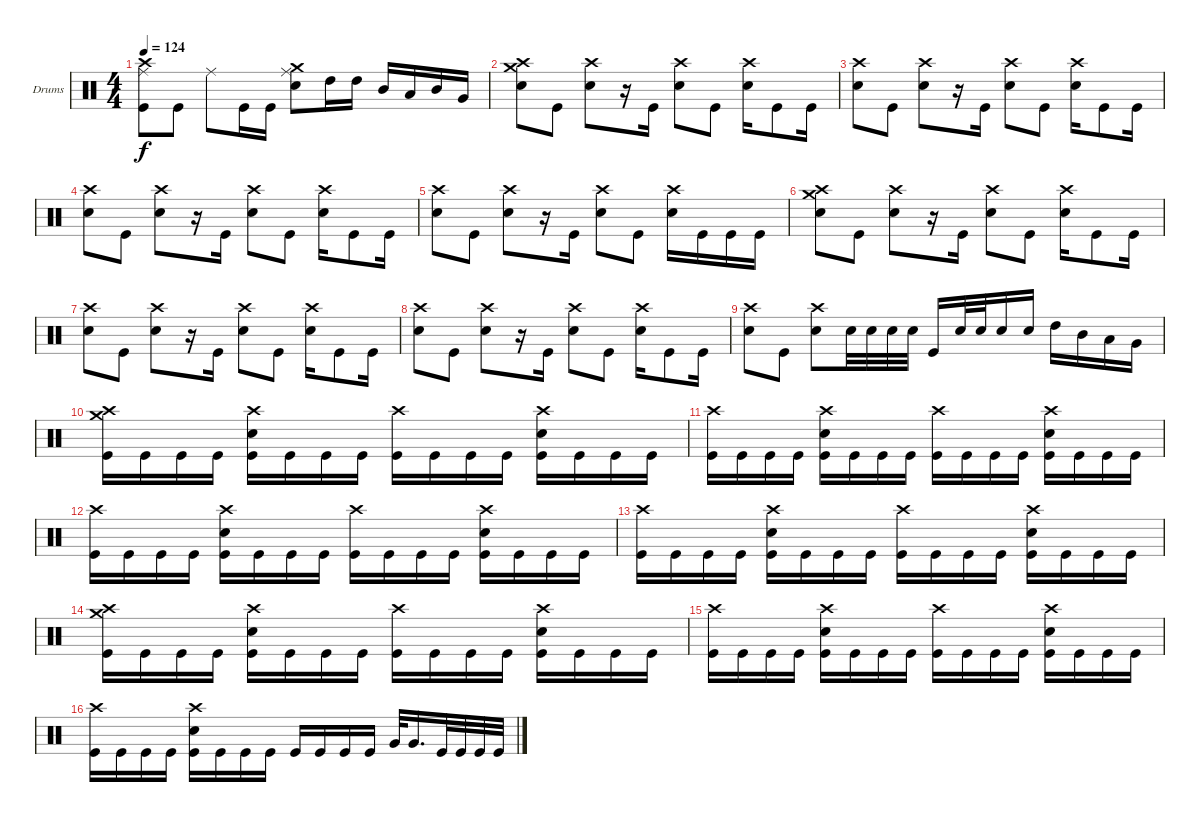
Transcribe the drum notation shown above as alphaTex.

\defaultSystemsLayout 4
\bracketExtendMode groupsimilarinstruments
\firstSystemTrackNameOrientation horizontal
\otherSystemsTrackNameOrientation horizontal
\track ("Drumkit" "Drums") {instrument percussion}
\staff {score}
\articulation defaults
\ts (4 4)
\tempo 124
\clef neutral
\ks c
("Ride (middle)" "Crash high (hit)" "Kick (hit)").8{dy f} "Kick (hit)".8 "Ride (middle)".8 "Kick (hit)".16 "Kick (hit)".16 ("Ride (middle)" "Crash medium (hit)" "Snare (hit) 2").8 "High Tom (hit)".16 "High Tom (hit)".16 "Mid Tom (hit)".16 "Low Tom (hit)".16 "Mid Tom (hit)".16 "Very Low Tom (hit)".16 |
("Crash high (hit)" "Crash medium (hit)" "Snare (hit) 2").8 "Kick (hit)".8 ("Crash high (hit)" "Snare (hit) 2").8 r.16 "Kick (hit)".16 ("Crash high (hit)" "Snare (hit) 2").8 "Kick (hit)".8 ("Crash high (hit)" "Snare (hit) 2").16 "Kick (hit)".8 "Kick (hit)".16 |
("Crash high (hit)" "Snare (hit) 2").8 "Kick (hit)".8 ("Crash high (hit)" "Snare (hit) 2").8 r.16 "Kick (hit)".16 ("Crash high (hit)" "Snare (hit) 2").8 "Kick (hit)".8 ("Crash high (hit)" "Snare (hit) 2").16 "Kick (hit)".8 "Kick (hit)".16 |
("Crash high (hit)" "Snare (hit) 2").8 "Kick (hit)".8 ("Crash high (hit)" "Snare (hit) 2").8 r.16 "Kick (hit)".16 ("Crash high (hit)" "Snare (hit) 2").8 "Kick (hit)".8 ("Crash high (hit)" "Snare (hit) 2").16 "Kick (hit)".8 "Kick (hit)".16 |
("Crash high (hit)" "Snare (hit) 2").8 "Kick (hit)".8 ("Crash high (hit)" "Snare (hit) 2").8 r.16 "Kick (hit)".16 ("Crash high (hit)" "Snare (hit) 2").8 "Kick (hit)".8 ("Crash high (hit)" "Snare (hit) 2").16 "Kick (hit)".16 "Kick (hit)".16 "Kick (hit)".16 |
("Crash high (hit)" "Crash medium (hit)" "Snare (hit) 2").8 "Kick (hit)".8 ("Crash high (hit)" "Snare (hit) 2").8 r.16 "Kick (hit)".16 ("Crash high (hit)" "Snare (hit) 2").8 "Kick (hit)".8 ("Crash high (hit)" "Snare (hit) 2").16 "Kick (hit)".8 "Kick (hit)".16 |
("Crash high (hit)" "Snare (hit) 2").8 "Kick (hit)".8 ("Crash high (hit)" "Snare (hit) 2").8 r.16 "Kick (hit)".16 ("Crash high (hit)" "Snare (hit) 2").8 "Kick (hit)".8 ("Crash high (hit)" "Snare (hit) 2").16 "Kick (hit)".8 "Kick (hit)".16 |
("Crash high (hit)" "Snare (hit) 2").8 "Kick (hit)".8 ("Crash high (hit)" "Snare (hit) 2").8 r.16 "Kick (hit)".16 ("Crash high (hit)" "Snare (hit) 2").8 "Kick (hit)".8 ("Crash high (hit)" "Snare (hit) 2").16 "Kick (hit)".8 "Kick (hit)".16 |
("Crash high (hit)" "Snare (hit) 2").8 "Kick (hit)".8 ("Crash high (hit)" "Snare (hit) 2").8 "Snare (hit) 2".32 "Snare (hit) 2".32 "Snare (hit) 2".32 "Snare (hit) 2".32 "Kick (hit)".16 "Snare (hit) 2".32 "Snare (hit) 2".32 "Snare (hit) 2".16 "Snare (hit) 2".16 "High Tom (hit)".16 "Mid Tom (hit)".16 "Low Tom (hit)".16 "Very Low Tom (hit)".16 |
("Crash high (hit)" "Crash medium (hit)" "Kick (hit)").16 "Kick (hit)".16 "Kick (hit)".16 "Kick (hit)".16 ("Crash high (hit)" "Snare (hit) 2" "Kick (hit)").16 "Kick (hit)".16 "Kick (hit)".16 "Kick (hit)".16 ("Crash high (hit)" "Kick (hit)").16 "Kick (hit)".16 "Kick (hit)".16 "Kick (hit)".16 ("Crash high (hit)" "Snare (hit) 2" "Kick (hit)").16 "Kick (hit)".16 "Kick (hit)".16 "Kick (hit)".16 |
("Crash high (hit)" "Kick (hit)").16 "Kick (hit)".16 "Kick (hit)".16 "Kick (hit)".16 ("Crash high (hit)" "Snare (hit) 2" "Kick (hit)").16 "Kick (hit)".16 "Kick (hit)".16 "Kick (hit)".16 ("Crash high (hit)" "Kick (hit)").16 "Kick (hit)".16 "Kick (hit)".16 "Kick (hit)".16 ("Crash high (hit)" "Snare (hit) 2" "Kick (hit)").16 "Kick (hit)".16 "Kick (hit)".16 "Kick (hit)".16 |
("Crash high (hit)" "Kick (hit)").16 "Kick (hit)".16 "Kick (hit)".16 "Kick (hit)".16 ("Crash high (hit)" "Snare (hit) 2" "Kick (hit)").16 "Kick (hit)".16 "Kick (hit)".16 "Kick (hit)".16 ("Crash high (hit)" "Kick (hit)").16 "Kick (hit)".16 "Kick (hit)".16 "Kick (hit)".16 ("Crash high (hit)" "Snare (hit) 2" "Kick (hit)").16 "Kick (hit)".16 "Kick (hit)".16 "Kick (hit)".16 |
("Crash high (hit)" "Kick (hit)").16 "Kick (hit)".16 "Kick (hit)".16 "Kick (hit)".16 ("Crash high (hit)" "Snare (hit) 2" "Kick (hit)").16 "Kick (hit)".16 "Kick (hit)".16 "Kick (hit)".16 ("Crash high (hit)" "Kick (hit)").16 "Kick (hit)".16 "Kick (hit)".16 "Kick (hit)".16 ("Crash high (hit)" "Snare (hit) 2" "Kick (hit)").16 "Kick (hit)".16 "Kick (hit)".16 "Kick (hit)".16 |
("Crash high (hit)" "Crash medium (hit)" "Kick (hit)").16 "Kick (hit)".16 "Kick (hit)".16 "Kick (hit)".16 ("Crash high (hit)" "Snare (hit) 2" "Kick (hit)").16 "Kick (hit)".16 "Kick (hit)".16 "Kick (hit)".16 ("Crash high (hit)" "Kick (hit)").16 "Kick (hit)".16 "Kick (hit)".16 "Kick (hit)".16 ("Crash high (hit)" "Snare (hit) 2" "Kick (hit)").16 "Kick (hit)".16 "Kick (hit)".16 "Kick (hit)".16 |
("Crash high (hit)" "Kick (hit)").16 "Kick (hit)".16 "Kick (hit)".16 "Kick (hit)".16 ("Crash high (hit)" "Snare (hit) 2" "Kick (hit)").16 "Kick (hit)".16 "Kick (hit)".16 "Kick (hit)".16 ("Crash high (hit)" "Kick (hit)").16 "Kick (hit)".16 "Kick (hit)".16 "Kick (hit)".16 ("Crash high (hit)" "Snare (hit) 2" "Kick (hit)").16 "Kick (hit)".16 "Kick (hit)".16 "Kick (hit)".16 |
("Crash high (hit)" "Kick (hit)").16 "Kick (hit)".16 "Kick (hit)".16 "Kick (hit)".16 ("Crash high (hit)" "Snare (hit) 2" "Kick (hit)").16 "Kick (hit)".16 "Kick (hit)".16 "Kick (hit)".16 "Kick (hit)".16 "Kick (hit)".16 "Kick (hit)".16 "Kick (hit)".16 "Very Low Tom (hit)".32 "Very Low Tom (hit)".16{d} "Kick (hit)".32 "Kick (hit)".32 "Kick (hit)".32 "Kick (hit)".32
